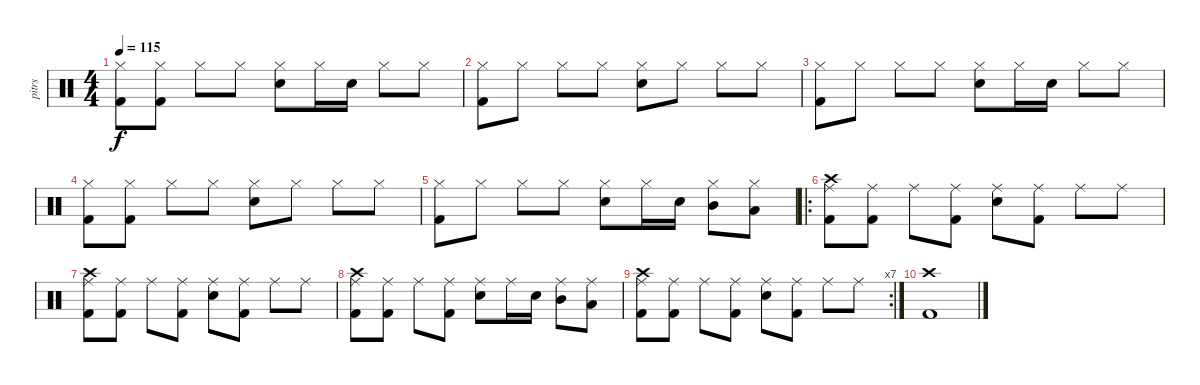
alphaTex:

\track ("pitrs" "pitrs") {instrument percussion}
\staff {score}
\articulation defaults
\ts (4 4)
\tempo 115
\clef neutral
\ks c
("Kick (hit) 2" "Hi-Hat (closed)").8{dy f} ("Kick (hit) 2" "Hi-Hat (closed)").8 "Hi-Hat (closed)".8 "Hi-Hat (closed)".8 ("Snare (hit) 2" "Hi-Hat (closed)").8 "Hi-Hat (closed)".16 "Snare (hit) 2".16 "Hi-Hat (closed)".8 "Hi-Hat (closed)".8 |
("Kick (hit) 2" "Hi-Hat (closed)").8 "Hi-Hat (closed)".8 "Hi-Hat (closed)".8 "Hi-Hat (closed)".8 ("Snare (hit) 2" "Hi-Hat (closed)").8 "Hi-Hat (closed)".8 "Hi-Hat (closed)".8 "Hi-Hat (closed)".8 |
("Kick (hit) 2" "Hi-Hat (closed)").8 "Hi-Hat (closed)".8 "Hi-Hat (closed)".8 "Hi-Hat (closed)".8 ("Snare (hit) 2" "Hi-Hat (closed)").8 "Hi-Hat (closed)".16 "Snare (hit) 2".16 "Hi-Hat (closed)".8 "Hi-Hat (closed)".8 |
("Kick (hit) 2" "Hi-Hat (closed)").8 ("Kick (hit) 2" "Hi-Hat (closed)").8 "Hi-Hat (closed)".8 "Hi-Hat (closed)".8 ("Snare (hit) 2" "Hi-Hat (closed)").8 "Hi-Hat (closed)".8 "Hi-Hat (closed)".8 "Hi-Hat (closed)".8 |
("Kick (hit) 2" "Hi-Hat (closed)").8 "Hi-Hat (closed)".8 "Hi-Hat (closed)".8 "Hi-Hat (closed)".8 ("Snare (hit) 2" "Hi-Hat (closed)").8 "Hi-Hat (closed)".16 "Snare (hit) 2".16 ("Mid Tom (hit)" "Hi-Hat (closed)").8 ("Low Tom (hit)" "Hi-Hat (closed)").8 |
\ro
("Crash high (hit)" "Kick (hit) 2" "Ride (middle)").8 ("Kick (hit) 2" "Ride (middle)").8 "Ride (middle)".8 ("Kick (hit) 2" "Ride (middle)").8 ("Snare (hit) 2" "Ride (middle)").8 ("Kick (hit) 2" "Ride (middle)").8 "Ride (middle)".8 "Ride (middle)".8 |
("Crash high (hit)" "Kick (hit) 2" "Ride (middle)").8 ("Kick (hit) 2" "Ride (middle)").8 "Ride (middle)".8 ("Kick (hit) 2" "Ride (middle)").8 ("Snare (hit) 2" "Ride (middle)").8 ("Kick (hit) 2" "Ride (middle)").8 "Ride (middle)".8 "Ride (middle)".8 |
("Crash high (hit)" "Kick (hit) 2" "Ride (middle)").8 ("Kick (hit) 2" "Ride (middle)").8 "Ride (middle)".8 ("Kick (hit) 2" "Ride (middle)").8 ("Snare (hit) 2" "Ride (middle)").8 "Ride (middle)".16 "Snare (hit) 2".16 ("Mid Tom (hit)" "Ride (middle)").8 ("Low Tom (hit)" "Ride (middle)").8 |
\rc 7
("Crash high (hit)" "Kick (hit) 2" "Ride (middle)").8 ("Kick (hit) 2" "Ride (middle)").8 "Ride (middle)".8 ("Kick (hit) 2" "Ride (middle)").8 ("Snare (hit) 2" "Ride (middle)").8 ("Kick (hit) 2" "Ride (middle)").8 "Ride (middle)".8 "Ride (middle)".8 |
("Crash high (hit)" "Kick (hit) 2").1
